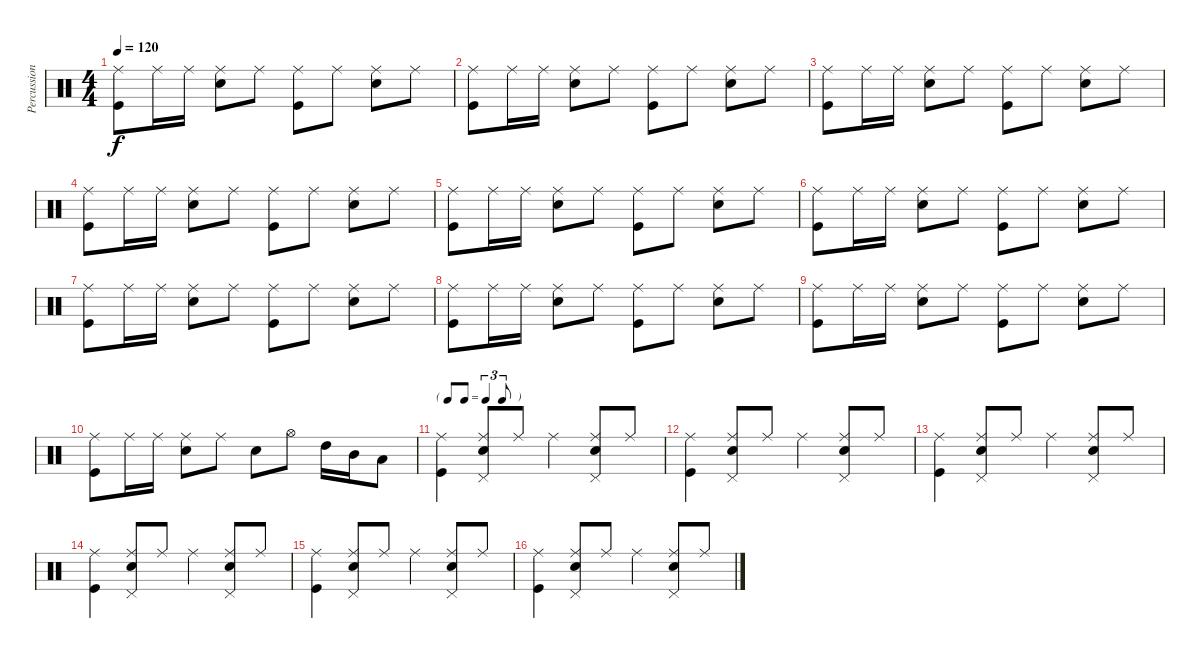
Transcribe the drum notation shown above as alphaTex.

\track ("Percussion" "Percussion") {instrument percussion}
\staff {score}
\articulation defaults
\ts (4 4)
\tempo 120
\clef neutral
\ks c
("Ride (middle)" "Kick (hit)").8{dy f} "Ride (middle)".16 "Ride (middle)".16 ("Ride (middle)" "Snare (hit) 2").8 "Ride (middle)".8 ("Ride (middle)" "Kick (hit)").8 "Ride (middle)".8 ("Ride (middle)" "Snare (hit) 2").8 "Ride (middle)".8 |
("Ride (middle)" "Kick (hit)").8 "Ride (middle)".16 "Ride (middle)".16 ("Ride (middle)" "Snare (hit) 2").8 "Ride (middle)".8 ("Ride (middle)" "Kick (hit)").8 "Ride (middle)".8 ("Ride (middle)" "Snare (hit) 2").8 "Ride (middle)".8 |
("Ride (middle)" "Kick (hit)").8 "Ride (middle)".16 "Ride (middle)".16 ("Ride (middle)" "Snare (hit) 2").8 "Ride (middle)".8 ("Ride (middle)" "Kick (hit)").8 "Ride (middle)".8 ("Ride (middle)" "Snare (hit) 2").8 "Ride (middle)".8 |
("Ride (middle)" "Kick (hit)").8 "Ride (middle)".16 "Ride (middle)".16 ("Ride (middle)" "Snare (hit) 2").8 "Ride (middle)".8 ("Ride (middle)" "Kick (hit)").8 "Ride (middle)".8 ("Ride (middle)" "Snare (hit) 2").8 "Ride (middle)".8 |
("Ride (middle)" "Kick (hit)").8 "Ride (middle)".16 "Ride (middle)".16 ("Ride (middle)" "Snare (hit) 2").8 "Ride (middle)".8 ("Ride (middle)" "Kick (hit)").8 "Ride (middle)".8 ("Ride (middle)" "Snare (hit) 2").8 "Ride (middle)".8 |
("Ride (middle)" "Kick (hit)").8 "Ride (middle)".16 "Ride (middle)".16 ("Ride (middle)" "Snare (hit) 2").8 "Ride (middle)".8 ("Ride (middle)" "Kick (hit)").8 "Ride (middle)".8 ("Ride (middle)" "Snare (hit) 2").8 "Ride (middle)".8 |
("Ride (middle)" "Kick (hit)").8 "Ride (middle)".16 "Ride (middle)".16 ("Ride (middle)" "Snare (hit) 2").8 "Ride (middle)".8 ("Ride (middle)" "Kick (hit)").8 "Ride (middle)".8 ("Ride (middle)" "Snare (hit) 2").8 "Ride (middle)".8 |
("Ride (middle)" "Kick (hit)").8 "Ride (middle)".16 "Ride (middle)".16 ("Ride (middle)" "Snare (hit) 2").8 "Ride (middle)".8 ("Ride (middle)" "Kick (hit)").8 "Ride (middle)".8 ("Ride (middle)" "Snare (hit) 2").8 "Ride (middle)".8 |
("Ride (middle)" "Kick (hit)").8 "Ride (middle)".16 "Ride (middle)".16 ("Ride (middle)" "Snare (hit) 2").8 "Ride (middle)".8 ("Ride (middle)" "Kick (hit)").8 "Ride (middle)".8 ("Ride (middle)" "Snare (hit) 2").8 "Ride (middle)".8 |
("Ride (middle)" "Kick (hit)").8 "Ride (middle)".16 "Ride (middle)".16 ("Ride (middle)" "Snare (hit) 2").8 "Ride (middle)".8 "Snare (hit) 2".8 "Hi-Hat (open)".8 "High Tom (hit)".16 "Mid Tom (hit)".16 "Low Tom (hit)".8 |
\tf triplet8th
("Ride (middle)" "Kick (hit)").4 ("Ride (middle)" "Snare (hit) 2" "Pedal Hi-Hat (hit)").8 "Ride (middle)".8 "Ride (middle)".4 ("Ride (middle)" "Snare (hit) 2" "Pedal Hi-Hat (hit)").8 "Ride (middle)".8 |
("Ride (middle)" "Kick (hit)").4 ("Ride (middle)" "Snare (hit) 2" "Pedal Hi-Hat (hit)").8 "Ride (middle)".8 "Ride (middle)".4 ("Ride (middle)" "Snare (hit) 2" "Pedal Hi-Hat (hit)").8 "Ride (middle)".8 |
("Ride (middle)" "Kick (hit)").4 ("Ride (middle)" "Snare (hit) 2" "Pedal Hi-Hat (hit)").8 "Ride (middle)".8 "Ride (middle)".4 ("Ride (middle)" "Snare (hit) 2" "Pedal Hi-Hat (hit)").8 "Ride (middle)".8 |
("Ride (middle)" "Kick (hit)").4 ("Ride (middle)" "Snare (hit) 2" "Pedal Hi-Hat (hit)").8 "Ride (middle)".8 "Ride (middle)".4 ("Ride (middle)" "Snare (hit) 2" "Pedal Hi-Hat (hit)").8 "Ride (middle)".8 |
("Ride (middle)" "Kick (hit)").4 ("Ride (middle)" "Snare (hit) 2" "Pedal Hi-Hat (hit)").8 "Ride (middle)".8 "Ride (middle)".4 ("Ride (middle)" "Snare (hit) 2" "Pedal Hi-Hat (hit)").8 "Ride (middle)".8 |
("Ride (middle)" "Kick (hit)").4 ("Ride (middle)" "Snare (hit) 2" "Pedal Hi-Hat (hit)").8 "Ride (middle)".8 "Ride (middle)".4 ("Ride (middle)" "Snare (hit) 2" "Pedal Hi-Hat (hit)").8 "Ride (middle)".8
